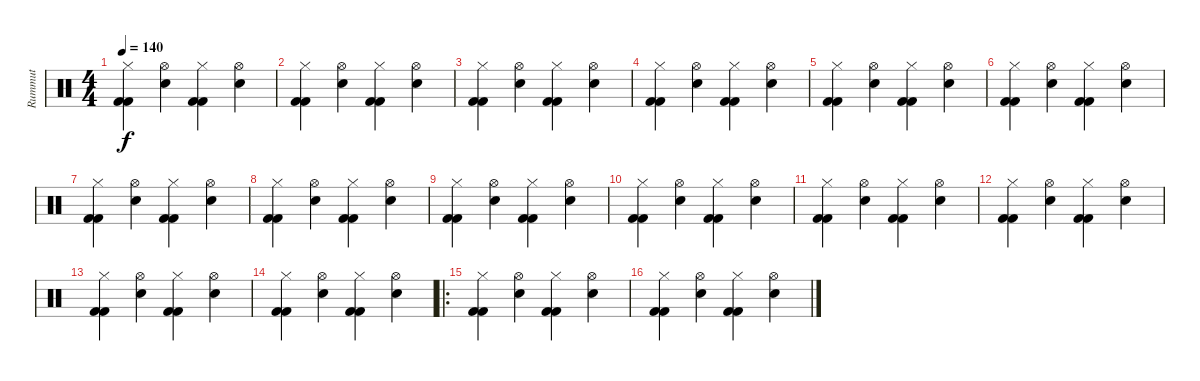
\track ("Rummut" "Rummut") {instrument percussion}
\staff {score}
\articulation defaults
\ts (4 4)
\tempo 140
\clef neutral
\ks c
("Hi-Hat (closed)" "Kick (hit) 2" "Kick (hit) 2").4{dy f} ("Hi-Hat (open)" "Electric Snare (hit)").4 ("Hi-Hat (closed)" "Kick (hit) 2" "Kick (hit) 2").4 ("Hi-Hat (open)" "Electric Snare (hit)").4 |
("Hi-Hat (closed)" "Kick (hit) 2" "Kick (hit) 2").4 ("Hi-Hat (open)" "Electric Snare (hit)").4 ("Hi-Hat (closed)" "Kick (hit) 2" "Kick (hit) 2").4 ("Hi-Hat (open)" "Electric Snare (hit)").4 |
("Hi-Hat (closed)" "Kick (hit) 2" "Kick (hit) 2").4 ("Hi-Hat (open)" "Electric Snare (hit)").4 ("Hi-Hat (closed)" "Kick (hit) 2" "Kick (hit) 2").4 ("Hi-Hat (open)" "Electric Snare (hit)").4 |
("Hi-Hat (closed)" "Kick (hit) 2" "Kick (hit) 2").4 ("Hi-Hat (open)" "Electric Snare (hit)").4 ("Hi-Hat (closed)" "Kick (hit) 2" "Kick (hit) 2").4 ("Hi-Hat (open)" "Electric Snare (hit)").4 |
("Hi-Hat (closed)" "Kick (hit) 2" "Kick (hit) 2").4 ("Hi-Hat (open)" "Electric Snare (hit)").4 ("Hi-Hat (closed)" "Kick (hit) 2" "Kick (hit) 2").4 ("Hi-Hat (open)" "Electric Snare (hit)").4 |
("Hi-Hat (closed)" "Kick (hit) 2" "Kick (hit) 2").4 ("Hi-Hat (open)" "Electric Snare (hit)").4 ("Hi-Hat (closed)" "Kick (hit) 2" "Kick (hit) 2").4 ("Hi-Hat (open)" "Electric Snare (hit)").4 |
("Hi-Hat (closed)" "Kick (hit) 2" "Kick (hit) 2").4 ("Hi-Hat (open)" "Electric Snare (hit)").4 ("Hi-Hat (closed)" "Kick (hit) 2" "Kick (hit) 2").4 ("Hi-Hat (open)" "Electric Snare (hit)").4 |
("Hi-Hat (closed)" "Kick (hit) 2" "Kick (hit) 2").4 ("Hi-Hat (open)" "Electric Snare (hit)").4 ("Hi-Hat (closed)" "Kick (hit) 2" "Kick (hit) 2").4 ("Hi-Hat (open)" "Electric Snare (hit)").4 |
("Hi-Hat (closed)" "Kick (hit) 2" "Kick (hit) 2").4 ("Hi-Hat (open)" "Electric Snare (hit)").4 ("Hi-Hat (closed)" "Kick (hit) 2" "Kick (hit) 2").4 ("Hi-Hat (open)" "Electric Snare (hit)").4 |
("Hi-Hat (closed)" "Kick (hit) 2" "Kick (hit) 2").4 ("Hi-Hat (open)" "Electric Snare (hit)").4 ("Hi-Hat (closed)" "Kick (hit) 2" "Kick (hit) 2").4 ("Hi-Hat (open)" "Electric Snare (hit)").4 |
("Hi-Hat (closed)" "Kick (hit) 2" "Kick (hit) 2").4 ("Hi-Hat (open)" "Electric Snare (hit)").4 ("Hi-Hat (closed)" "Kick (hit) 2" "Kick (hit) 2").4 ("Hi-Hat (open)" "Electric Snare (hit)").4 |
("Hi-Hat (closed)" "Kick (hit) 2" "Kick (hit) 2").4 ("Hi-Hat (open)" "Electric Snare (hit)").4 ("Hi-Hat (closed)" "Kick (hit) 2" "Kick (hit) 2").4 ("Hi-Hat (open)" "Electric Snare (hit)").4 |
("Hi-Hat (closed)" "Kick (hit) 2" "Kick (hit) 2").4 ("Hi-Hat (open)" "Electric Snare (hit)").4 ("Hi-Hat (closed)" "Kick (hit) 2" "Kick (hit) 2").4 ("Hi-Hat (open)" "Electric Snare (hit)").4 |
("Hi-Hat (closed)" "Kick (hit) 2" "Kick (hit) 2").4 ("Hi-Hat (open)" "Electric Snare (hit)").4 ("Hi-Hat (closed)" "Kick (hit) 2" "Kick (hit) 2").4 ("Hi-Hat (open)" "Electric Snare (hit)").4 |
\ro
("Hi-Hat (closed)" "Kick (hit) 2" "Kick (hit) 2").4 ("Hi-Hat (open)" "Electric Snare (hit)").4 ("Hi-Hat (closed)" "Kick (hit) 2" "Kick (hit) 2").4 ("Hi-Hat (open)" "Electric Snare (hit)").4 |
("Hi-Hat (closed)" "Kick (hit) 2" "Kick (hit) 2").4 ("Hi-Hat (open)" "Electric Snare (hit)").4 ("Hi-Hat (closed)" "Kick (hit) 2" "Kick (hit) 2").4 ("Hi-Hat (open)" "Electric Snare (hit)").4
